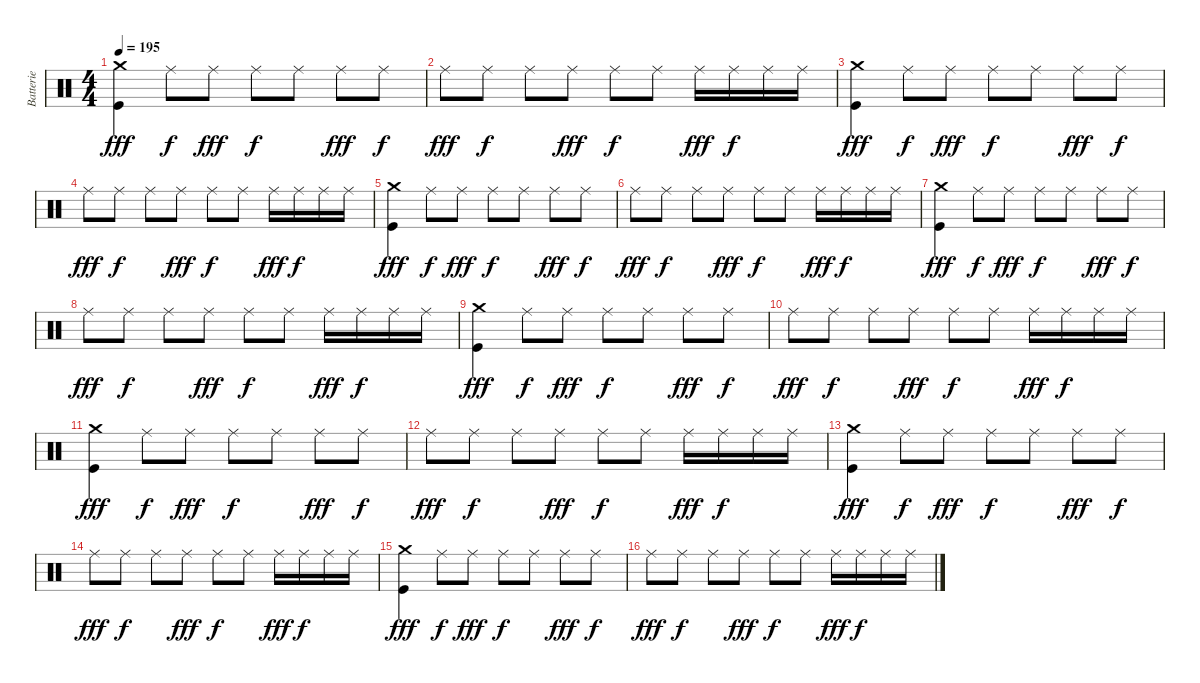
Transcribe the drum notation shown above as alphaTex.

\track ("Batterie" "Batterie") {instrument percussion}
\staff {score}
\articulation defaults
\ts (4 4)
\tempo 195
\clef neutral
\ks c
("Crash medium (hit)" "Kick (hit)").4{dy fff} "Ride (middle)".8{dy f} "Ride (middle)".8{dy fff} "Ride (middle)".8{dy f} "Ride (middle)".8 "Ride (middle)".8{dy fff} "Ride (middle)".8{dy f} |
"Ride (middle)".8{dy fff} "Ride (middle)".8{dy f} "Ride (middle)".8 "Ride (middle)".8{dy fff} "Ride (middle)".8{dy f} "Ride (middle)".8 "Ride (middle)".16{dy fff} "Ride (middle)".16{dy f} "Ride (middle)".16 "Ride (middle)".16 |
("Crash medium (hit)" "Kick (hit)").4{dy fff} "Ride (middle)".8{dy f} "Ride (middle)".8{dy fff} "Ride (middle)".8{dy f} "Ride (middle)".8 "Ride (middle)".8{dy fff} "Ride (middle)".8{dy f} |
"Ride (middle)".8{dy fff} "Ride (middle)".8{dy f} "Ride (middle)".8 "Ride (middle)".8{dy fff} "Ride (middle)".8{dy f} "Ride (middle)".8 "Ride (middle)".16{dy fff} "Ride (middle)".16{dy f} "Ride (middle)".16 "Ride (middle)".16 |
("Crash medium (hit)" "Kick (hit)").4{dy fff} "Ride (middle)".8{dy f} "Ride (middle)".8{dy fff} "Ride (middle)".8{dy f} "Ride (middle)".8 "Ride (middle)".8{dy fff} "Ride (middle)".8{dy f} |
"Ride (middle)".8{dy fff} "Ride (middle)".8{dy f} "Ride (middle)".8 "Ride (middle)".8{dy fff} "Ride (middle)".8{dy f} "Ride (middle)".8 "Ride (middle)".16{dy fff} "Ride (middle)".16{dy f} "Ride (middle)".16 "Ride (middle)".16 |
("Crash medium (hit)" "Kick (hit)").4{dy fff} "Ride (middle)".8{dy f} "Ride (middle)".8{dy fff} "Ride (middle)".8{dy f} "Ride (middle)".8 "Ride (middle)".8{dy fff} "Ride (middle)".8{dy f} |
"Ride (middle)".8{dy fff} "Ride (middle)".8{dy f} "Ride (middle)".8 "Ride (middle)".8{dy fff} "Ride (middle)".8{dy f} "Ride (middle)".8 "Ride (middle)".16{dy fff} "Ride (middle)".16{dy f} "Ride (middle)".16 "Ride (middle)".16 |
("Crash medium (hit)" "Kick (hit)").4{dy fff} "Ride (middle)".8{dy f} "Ride (middle)".8{dy fff} "Ride (middle)".8{dy f} "Ride (middle)".8 "Ride (middle)".8{dy fff} "Ride (middle)".8{dy f} |
"Ride (middle)".8{dy fff} "Ride (middle)".8{dy f} "Ride (middle)".8 "Ride (middle)".8{dy fff} "Ride (middle)".8{dy f} "Ride (middle)".8 "Ride (middle)".16{dy fff} "Ride (middle)".16{dy f} "Ride (middle)".16 "Ride (middle)".16 |
("Crash medium (hit)" "Kick (hit)").4{dy fff} "Ride (middle)".8{dy f} "Ride (middle)".8{dy fff} "Ride (middle)".8{dy f} "Ride (middle)".8 "Ride (middle)".8{dy fff} "Ride (middle)".8{dy f} |
"Ride (middle)".8{dy fff} "Ride (middle)".8{dy f} "Ride (middle)".8 "Ride (middle)".8{dy fff} "Ride (middle)".8{dy f} "Ride (middle)".8 "Ride (middle)".16{dy fff} "Ride (middle)".16{dy f} "Ride (middle)".16 "Ride (middle)".16 |
("Crash medium (hit)" "Kick (hit)").4{dy fff} "Ride (middle)".8{dy f} "Ride (middle)".8{dy fff} "Ride (middle)".8{dy f} "Ride (middle)".8 "Ride (middle)".8{dy fff} "Ride (middle)".8{dy f} |
"Ride (middle)".8{dy fff} "Ride (middle)".8{dy f} "Ride (middle)".8 "Ride (middle)".8{dy fff} "Ride (middle)".8{dy f} "Ride (middle)".8 "Ride (middle)".16{dy fff} "Ride (middle)".16{dy f} "Ride (middle)".16 "Ride (middle)".16 |
("Crash medium (hit)" "Kick (hit)").4{dy fff} "Ride (middle)".8{dy f} "Ride (middle)".8{dy fff} "Ride (middle)".8{dy f} "Ride (middle)".8 "Ride (middle)".8{dy fff} "Ride (middle)".8{dy f} |
"Ride (middle)".8{dy fff} "Ride (middle)".8{dy f} "Ride (middle)".8 "Ride (middle)".8{dy fff} "Ride (middle)".8{dy f} "Ride (middle)".8 "Ride (middle)".16{dy fff} "Ride (middle)".16{dy f} "Ride (middle)".16 "Ride (middle)".16
